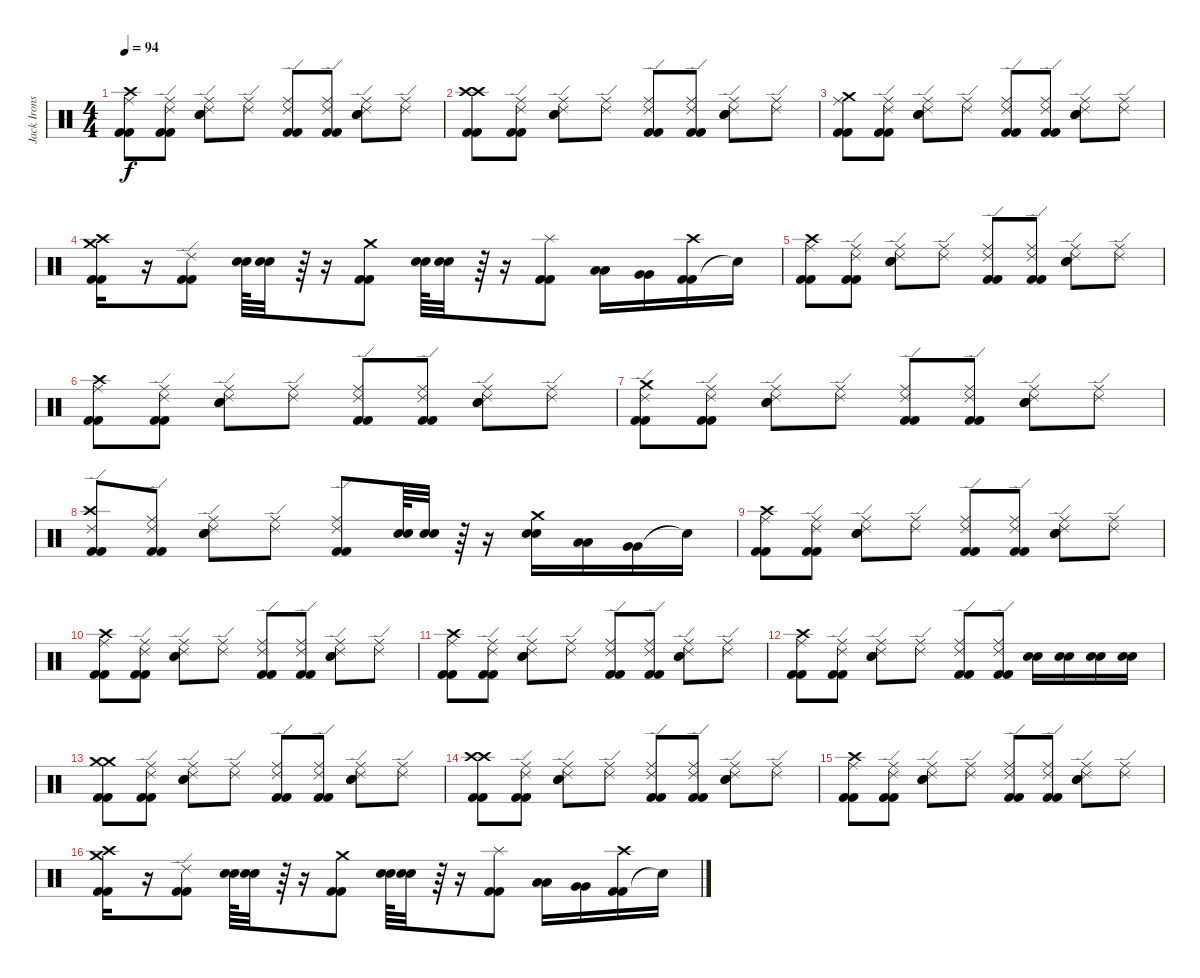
\track ("Jack Irons" "Jack Irons") {instrument percussion}
\staff {score}
\articulation defaults
\ts (4 4)
\tempo 94
\clef neutral
\ks c
("Kick (hit) 2" "Kick (hit) 2" "Ride (middle)" "Crash high (hit)").8{dy f} ("Kick (hit) 2" "Kick (hit) 2" "Ride (middle)" "Ride (edge) 2").8 ("Electric Snare (hit)" "Electric Snare (hit)" "Ride (middle)" "Ride (edge) 2").8 ("Ride (middle)" "Ride (edge) 2").8 ("Kick (hit) 2" "Kick (hit) 2" "Ride (middle)" "Ride (edge) 2").8 ("Kick (hit) 2" "Kick (hit) 2" "Ride (middle)" "Ride (edge) 2").8 ("Electric Snare (hit)" "Electric Snare (hit)" "Ride (middle)" "Ride (edge) 2").8 ("Ride (middle)" "Ride (edge) 2").8 |
("Kick (hit) 2" "Kick (hit) 2" "Crash high (hit)" "Crash high (hit)").8 ("Kick (hit) 2" "Kick (hit) 2" "Ride (middle)" "Ride (edge) 2").8 ("Electric Snare (hit)" "Electric Snare (hit)" "Ride (middle)" "Ride (edge) 2").8 ("Ride (middle)" "Ride (edge) 2").8 ("Kick (hit) 2" "Kick (hit) 2" "Ride (middle)" "Ride (edge) 2").8 ("Kick (hit) 2" "Kick (hit) 2" "Ride (middle)" "Ride (edge) 2").8 ("Electric Snare (hit)" "Electric Snare (hit)" "Ride (middle)" "Ride (edge) 2").8 ("Ride (middle)" "Ride (edge) 2").8 |
("Kick (hit) 2" "Kick (hit) 2" "Ride (middle)" "Crash medium (hit)").8 ("Kick (hit) 2" "Kick (hit) 2" "Ride (middle)" "Ride (edge) 2").8 ("Electric Snare (hit)" "Electric Snare (hit)" "Ride (middle)" "Ride (edge) 2").8 ("Ride (middle)" "Ride (edge) 2").8 ("Kick (hit) 2" "Kick (hit) 2" "Ride (middle)" "Ride (edge) 2").8 ("Kick (hit) 2" "Kick (hit) 2" "Ride (middle)" "Ride (edge) 2").8 ("Electric Snare (hit)" "Electric Snare (hit)" "Ride (middle)" "Ride (edge) 2").8 ("Ride (middle)" "Ride (edge) 2").8 |
("Kick (hit) 2" "Kick (hit) 2" "Crash high (hit)" "Crash medium (hit)").16 r.16 ("Kick (hit) 2" "Kick (hit) 2" "Ride (edge) 2").8 ("Electric Snare (hit)" "Electric Snare (hit)").64 ("Electric Snare (hit)" "Electric Snare (hit)").32 r.64 r.16 ("Crash medium (hit)" "Kick (hit) 2" "Kick (hit) 2").8 ("Electric Snare (hit)" "Electric Snare (hit)").64 ("Electric Snare (hit)" "Electric Snare (hit)").32 r.64 r.16 ("Splash (hit)" "Kick (hit) 2" "Kick (hit) 2").8 ("Low Tom (hit)" "Low Tom (hit)").16 ("Very Low Tom (hit)" "Very Low Tom (hit)").16 ("Kick (hit) 2" "Kick (hit) 2" "Crash high (hit)").16 "Snare (hit)"{t}.16 |
("Kick (hit) 2" "Kick (hit) 2" "Ride (middle)" "Crash high (hit)").8 ("Kick (hit) 2" "Kick (hit) 2" "Ride (middle)" "Ride (edge) 2").8 ("Electric Snare (hit)" "Electric Snare (hit)" "Ride (middle)" "Ride (edge) 2").8 ("Ride (middle)" "Ride (edge) 2").8 ("Kick (hit) 2" "Kick (hit) 2" "Ride (middle)" "Ride (edge) 2").8 ("Kick (hit) 2" "Kick (hit) 2" "Ride (middle)" "Ride (edge) 2").8 ("Electric Snare (hit)" "Electric Snare (hit)" "Ride (middle)" "Ride (edge) 2").8 ("Ride (middle)" "Ride (edge) 2").8 |
("Kick (hit) 2" "Kick (hit) 2" "Ride (middle)" "Crash high (hit)").8 ("Kick (hit) 2" "Kick (hit) 2" "Ride (middle)" "Ride (edge) 2").8 ("Electric Snare (hit)" "Electric Snare (hit)" "Ride (middle)" "Ride (edge) 2").8 ("Ride (middle)" "Ride (edge) 2").8 ("Kick (hit) 2" "Kick (hit) 2" "Ride (middle)" "Ride (edge) 2").8 ("Kick (hit) 2" "Kick (hit) 2" "Ride (middle)" "Ride (edge) 2").8 ("Electric Snare (hit)" "Electric Snare (hit)" "Ride (middle)" "Ride (edge) 2").8 ("Ride (middle)" "Ride (edge) 2").8 |
("Kick (hit) 2" "Kick (hit) 2" "Crash medium (hit)" "Ride (edge) 2").8 ("Kick (hit) 2" "Kick (hit) 2" "Ride (middle)" "Ride (edge) 2").8 ("Electric Snare (hit)" "Electric Snare (hit)" "Ride (middle)" "Ride (edge) 2").8 ("Ride (middle)" "Ride (edge) 2").8 ("Kick (hit) 2" "Kick (hit) 2" "Ride (middle)" "Ride (edge) 2").8 ("Kick (hit) 2" "Kick (hit) 2" "Ride (middle)" "Ride (edge) 2").8 ("Electric Snare (hit)" "Electric Snare (hit)" "Ride (middle)" "Ride (edge) 2").8 ("Ride (middle)" "Ride (edge) 2").8 |
("Kick (hit) 2" "Kick (hit) 2" "Crash high (hit)" "Ride (edge) 2").8 ("Kick (hit) 2" "Kick (hit) 2" "Ride (middle)" "Ride (edge) 2").8 ("Electric Snare (hit)" "Electric Snare (hit)" "Ride (middle)" "Ride (edge) 2").8 ("Ride (middle)" "Ride (edge) 2").8 ("Kick (hit) 2" "Kick (hit) 2" "Ride (middle)" "Ride (edge) 2").8 ("Electric Snare (hit)" "Electric Snare (hit)").64 ("Electric Snare (hit)" "Electric Snare (hit)").32 r.64 r.16 ("Electric Snare (hit)" "Electric Snare (hit)" "Crash medium (hit)").16 ("Low Tom (hit)" "Low Tom (hit)").16 ("Very Low Tom (hit)" "Very Low Tom (hit)").16 "Snare (hit)"{t}.16 |
("Kick (hit) 2" "Kick (hit) 2" "Ride (middle)" "Crash high (hit)").8 ("Kick (hit) 2" "Kick (hit) 2" "Ride (middle)" "Ride (edge) 2").8 ("Electric Snare (hit)" "Electric Snare (hit)" "Ride (middle)" "Ride (edge) 2").8 ("Ride (middle)" "Ride (edge) 2").8 ("Kick (hit) 2" "Kick (hit) 2" "Ride (middle)" "Ride (edge) 2").8 ("Kick (hit) 2" "Kick (hit) 2" "Ride (middle)" "Ride (edge) 2").8 ("Electric Snare (hit)" "Electric Snare (hit)" "Ride (middle)" "Ride (edge) 2").8 ("Ride (middle)" "Ride (edge) 2").8 |
("Kick (hit) 2" "Kick (hit) 2" "Ride (middle)" "Crash high (hit)").8 ("Kick (hit) 2" "Kick (hit) 2" "Ride (middle)" "Ride (edge) 2").8 ("Electric Snare (hit)" "Electric Snare (hit)" "Ride (middle)" "Ride (edge) 2").8 ("Ride (middle)" "Ride (edge) 2").8 ("Kick (hit) 2" "Kick (hit) 2" "Ride (middle)" "Ride (edge) 2").8 ("Kick (hit) 2" "Kick (hit) 2" "Ride (middle)" "Ride (edge) 2").8 ("Electric Snare (hit)" "Electric Snare (hit)" "Ride (middle)" "Ride (edge) 2").8 ("Ride (middle)" "Ride (edge) 2").8 |
("Kick (hit) 2" "Kick (hit) 2" "Ride (middle)" "Crash high (hit)").8 ("Kick (hit) 2" "Kick (hit) 2" "Ride (middle)" "Ride (edge) 2").8 ("Electric Snare (hit)" "Electric Snare (hit)" "Ride (middle)" "Ride (edge) 2").8 ("Ride (middle)" "Ride (edge) 2").8 ("Kick (hit) 2" "Kick (hit) 2" "Ride (middle)" "Ride (edge) 2").8 ("Kick (hit) 2" "Kick (hit) 2" "Ride (middle)" "Ride (edge) 2").8 ("Electric Snare (hit)" "Electric Snare (hit)" "Ride (middle)" "Ride (edge) 2").8 ("Ride (middle)" "Ride (edge) 2").8 |
("Kick (hit) 2" "Kick (hit) 2" "Ride (middle)" "Crash high (hit)").8 ("Kick (hit) 2" "Kick (hit) 2" "Ride (middle)" "Ride (edge) 2").8 ("Electric Snare (hit)" "Electric Snare (hit)" "Ride (middle)" "Ride (edge) 2").8 ("Ride (middle)" "Ride (edge) 2").8 ("Kick (hit) 2" "Kick (hit) 2" "Ride (middle)" "Ride (edge) 2").8 ("Kick (hit) 2" "Kick (hit) 2" "Ride (middle)" "Ride (edge) 2").8 ("Electric Snare (hit)" "Electric Snare (hit)").16 ("Electric Snare (hit)" "Electric Snare (hit)").16 ("Electric Snare (hit)" "Electric Snare (hit)").16 ("Electric Snare (hit)" "Electric Snare (hit)").16 |
("Kick (hit) 2" "Kick (hit) 2" "Crash medium (hit)" "Crash medium (hit)").8 ("Kick (hit) 2" "Kick (hit) 2" "Ride (middle)" "Ride (edge) 2").8 ("Electric Snare (hit)" "Electric Snare (hit)" "Ride (middle)" "Ride (edge) 2").8 ("Ride (middle)" "Ride (edge) 2").8 ("Kick (hit) 2" "Kick (hit) 2" "Ride (middle)" "Ride (edge) 2").8 ("Kick (hit) 2" "Kick (hit) 2" "Ride (middle)" "Ride (edge) 2").8 ("Electric Snare (hit)" "Electric Snare (hit)" "Ride (middle)" "Ride (edge) 2").8 ("Ride (middle)" "Ride (edge) 2").8 |
("Kick (hit) 2" "Kick (hit) 2" "Crash high (hit)" "Crash high (hit)").8 ("Kick (hit) 2" "Kick (hit) 2" "Ride (middle)" "Ride (edge) 2").8 ("Electric Snare (hit)" "Electric Snare (hit)" "Ride (middle)" "Ride (edge) 2").8 ("Ride (middle)" "Ride (edge) 2").8 ("Kick (hit) 2" "Kick (hit) 2" "Ride (middle)" "Ride (edge) 2").8 ("Kick (hit) 2" "Kick (hit) 2" "Ride (middle)" "Ride (edge) 2").8 ("Electric Snare (hit)" "Electric Snare (hit)" "Ride (middle)" "Ride (edge) 2").8 ("Ride (middle)" "Ride (edge) 2").8 |
("Kick (hit) 2" "Kick (hit) 2" "Ride (middle)" "Crash high (hit)").8 ("Kick (hit) 2" "Kick (hit) 2" "Ride (middle)" "Ride (edge) 2").8 ("Electric Snare (hit)" "Electric Snare (hit)" "Ride (middle)" "Ride (edge) 2").8 ("Ride (middle)" "Ride (edge) 2").8 ("Kick (hit) 2" "Kick (hit) 2" "Ride (middle)" "Ride (edge) 2").8 ("Kick (hit) 2" "Kick (hit) 2" "Ride (middle)" "Ride (edge) 2").8 ("Electric Snare (hit)" "Electric Snare (hit)" "Ride (middle)" "Ride (edge) 2").8 ("Ride (middle)" "Ride (edge) 2").8 |
("Kick (hit) 2" "Kick (hit) 2" "Crash high (hit)" "Crash medium (hit)").16 r.16 ("Kick (hit) 2" "Kick (hit) 2" "Ride (edge) 2").8 ("Electric Snare (hit)" "Electric Snare (hit)").64 ("Electric Snare (hit)" "Electric Snare (hit)").32 r.64 r.16 ("Crash medium (hit)" "Kick (hit) 2" "Kick (hit) 2").8 ("Electric Snare (hit)" "Electric Snare (hit)").64 ("Electric Snare (hit)" "Electric Snare (hit)").32 r.64 r.16 ("Splash (hit)" "Kick (hit) 2" "Kick (hit) 2").8 ("Low Tom (hit)" "Low Tom (hit)").16 ("Very Low Tom (hit)" "Very Low Tom (hit)").16 ("Kick (hit) 2" "Kick (hit) 2" "Crash high (hit)").16 "Snare (hit)"{t}.16
